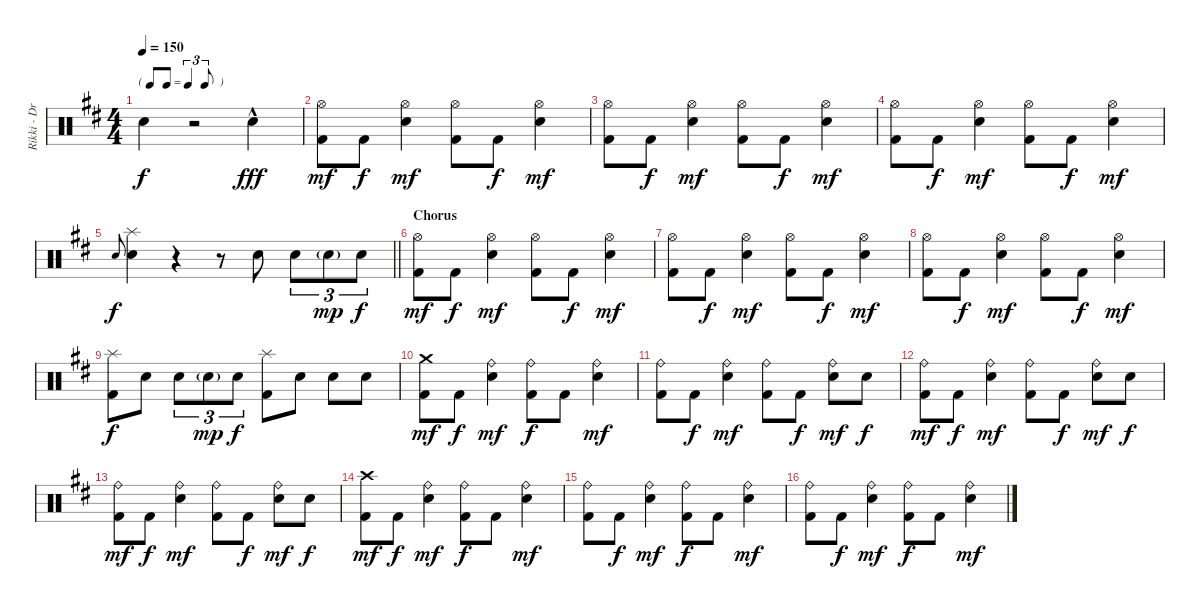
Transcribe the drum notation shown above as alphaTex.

\track ("Rikki - Drums" "Rikki - Dr") {instrument percussion}
\staff {score}
\articulation defaults
\ts (4 4)
\tf triplet8th
\tempo 150
\clef neutral
\ks d "Snare (hit) 2".4{dy f}
r.2 "Snare (hit) 2"{hac}.4{dy fff} |
("Hi-Hat (open)" "Kick (hit) 2").8{dy mf} "Kick (hit) 2".8{dy f} ("Hi-Hat (open)" "Snare (hit) 2").4{dy mf} ("Hi-Hat (open)" "Kick (hit) 2").8 "Kick (hit) 2".8{dy f} ("Hi-Hat (open)" "Snare (hit) 2").4{dy mf} |
("Hi-Hat (open)" "Kick (hit) 2").8 "Kick (hit) 2".8{dy f} ("Hi-Hat (open)" "Snare (hit) 2").4{dy mf} ("Hi-Hat (open)" "Kick (hit) 2").8 "Kick (hit) 2".8{dy f} ("Hi-Hat (open)" "Snare (hit) 2").4{dy mf} |
("Hi-Hat (open)" "Kick (hit) 2").8 "Kick (hit) 2".8{dy f} ("Hi-Hat (open)" "Snare (hit) 2").4{dy mf} ("Hi-Hat (open)" "Kick (hit) 2").8 "Kick (hit) 2".8{dy f} ("Hi-Hat (open)" "Snare (hit) 2").4{dy mf} |
\barLineRight lightlight "Snare (hit) 2".8{gr onbeat dy f}
("Splash (hit)" "Snare (hit) 2").4 r.4 r.8 "Snare (hit) 2".8 "Snare (hit) 2".8{tu (3 2)} "Snare (hit) 2"{g}.8{tu (3 2) dy mp} "Snare (hit) 2".8{tu (3 2) dy f} |
\section ("" "Chorus")
("Hi-Hat (open)" "Kick (hit) 2").8{dy mf} "Kick (hit) 2".8{dy f} ("Hi-Hat (open)" "Snare (hit) 2").4{dy mf} ("Hi-Hat (open)" "Kick (hit) 2").8 "Kick (hit) 2".8{dy f} ("Hi-Hat (open)" "Snare (hit) 2").4{dy mf} |
("Hi-Hat (open)" "Kick (hit) 2").8 "Kick (hit) 2".8{dy f} ("Hi-Hat (open)" "Snare (hit) 2").4{dy mf} ("Hi-Hat (open)" "Kick (hit) 2").8 "Kick (hit) 2".8{dy f} ("Hi-Hat (open)" "Snare (hit) 2").4{dy mf} |
("Hi-Hat (open)" "Kick (hit) 2").8 "Kick (hit) 2".8{dy f} ("Hi-Hat (open)" "Snare (hit) 2").4{dy mf} ("Hi-Hat (open)" "Kick (hit) 2").8 "Kick (hit) 2".8{dy f} ("Hi-Hat (open)" "Snare (hit) 2").4{dy mf} |
("Splash (hit)" "Kick (hit) 2").8{dy f} "Snare (hit) 2".8 "Snare (hit) 2".8{tu (3 2)} "Snare (hit) 2"{g}.8{tu (3 2) dy mp} "Snare (hit) 2".8{tu (3 2) dy f} ("Splash (hit)" "Kick (hit) 2").8 "Snare (hit) 2".8 "Snare (hit) 2".8 "Snare (hit) 2".8 |
("Crash medium (hit)" "Kick (hit) 2").8{dy mf} "Kick (hit) 2".8{dy f} ("Ride (bell)" "Snare (hit) 2").4{dy mf} ("Ride (bell)" "Kick (hit) 2").8{dy f} "Kick (hit) 2".8 ("Ride (bell)" "Snare (hit) 2").4{dy mf} |
("Ride (bell)" "Kick (hit) 2").8 "Kick (hit) 2".8{dy f} ("Ride (bell)" "Snare (hit) 2").4{dy mf} ("Ride (bell)" "Kick (hit) 2").8 "Kick (hit) 2".8{dy f} ("Ride (bell)" "Snare (hit) 2").8{dy mf} "Snare (hit) 2".8{dy f} |
("Ride (bell)" "Kick (hit) 2").8{dy mf} "Kick (hit) 2".8{dy f} ("Ride (bell)" "Snare (hit) 2").4{dy mf} ("Ride (bell)" "Kick (hit) 2").8 "Kick (hit) 2".8{dy f} ("Ride (bell)" "Snare (hit) 2").8{dy mf} "Snare (hit) 2".8{dy f} |
("Ride (bell)" "Kick (hit) 2").8{dy mf} "Kick (hit) 2".8{dy f} ("Ride (bell)" "Snare (hit) 2").4{dy mf} ("Ride (bell)" "Kick (hit) 2").8 "Kick (hit) 2".8{dy f} ("Ride (bell)" "Snare (hit) 2").8{dy mf} "Snare (hit) 2".8{dy f} |
("Crash high (hit)" "Kick (hit) 2").8{dy mf} "Kick (hit) 2".8{dy f} ("Ride (bell)" "Snare (hit) 2").4{dy mf} ("Ride (bell)" "Kick (hit) 2").8{dy f} "Kick (hit) 2".8 ("Ride (bell)" "Snare (hit) 2").4{dy mf} |
("Ride (bell)" "Kick (hit) 2").8 "Kick (hit) 2".8{dy f} ("Ride (bell)" "Snare (hit) 2").4{dy mf} ("Ride (bell)" "Kick (hit) 2").8{dy f} "Kick (hit) 2".8 ("Ride (bell)" "Snare (hit) 2").4{dy mf} |
("Ride (bell)" "Kick (hit) 2").8 "Kick (hit) 2".8{dy f} ("Ride (bell)" "Snare (hit) 2").4{dy mf} ("Ride (bell)" "Kick (hit) 2").8{dy f} "Kick (hit) 2".8 ("Ride (bell)" "Snare (hit) 2").4{dy mf}
